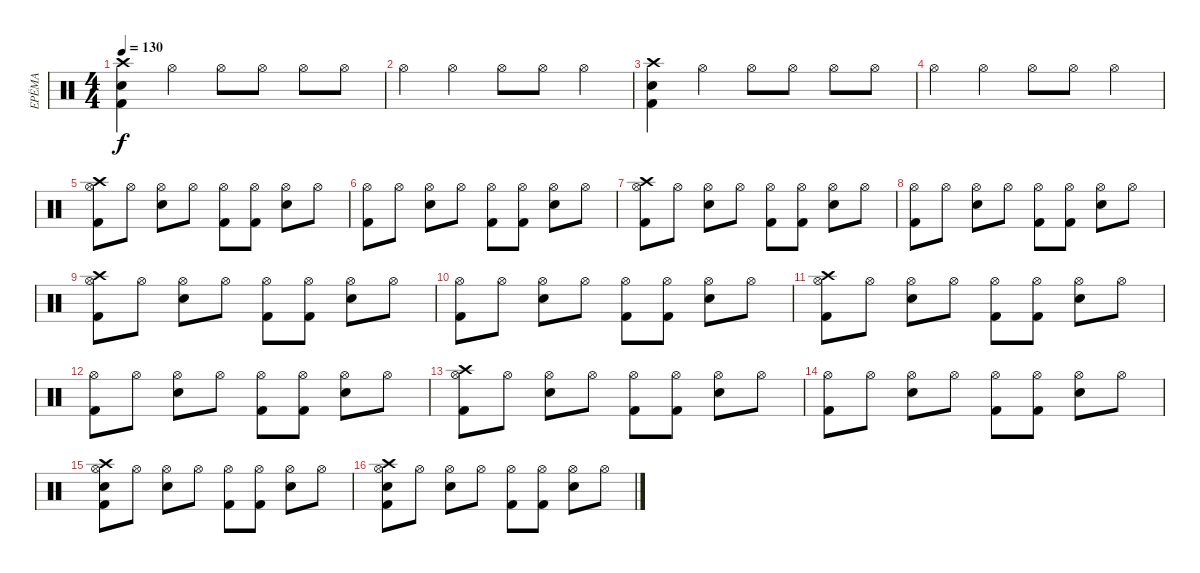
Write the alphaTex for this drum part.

\track ("ЕРЁМА" "ЕРЁМА") {instrument percussion}
\staff {score}
\articulation defaults
\ts (4 4)
\tempo 130
\clef neutral
\ks c
("Kick (hit) 2" "Electric Snare (hit)" "Crash high (hit)").4{dy f} "Hi-Hat (open)".4 "Hi-Hat (open)".8 "Hi-Hat (open)".8 "Hi-Hat (open)".8 "Hi-Hat (open)".8 |
"Hi-Hat (open)".4 "Hi-Hat (open)".4 "Hi-Hat (open)".8 "Hi-Hat (open)".8 "Hi-Hat (open)".4 |
("Kick (hit) 2" "Electric Snare (hit)" "Crash high (hit)").4 "Hi-Hat (open)".4 "Hi-Hat (open)".8 "Hi-Hat (open)".8 "Hi-Hat (open)".8 "Hi-Hat (open)".8 |
"Hi-Hat (open)".4 "Hi-Hat (open)".4 "Hi-Hat (open)".8 "Hi-Hat (open)".8 "Hi-Hat (open)".4 |
("Hi-Hat (open)" "Kick (hit) 2" "Crash high (hit)").8 "Hi-Hat (open)".8 ("Hi-Hat (open)" "Electric Snare (hit)").8 "Hi-Hat (open)".8 ("Hi-Hat (open)" "Kick (hit) 2").8 ("Hi-Hat (open)" "Kick (hit) 2").8 ("Hi-Hat (open)" "Electric Snare (hit)").8 "Hi-Hat (open)".8 |
("Hi-Hat (open)" "Kick (hit) 2").8 "Hi-Hat (open)".8 ("Hi-Hat (open)" "Electric Snare (hit)").8 "Hi-Hat (open)".8 ("Hi-Hat (open)" "Kick (hit) 2").8 ("Hi-Hat (open)" "Kick (hit) 2").8 ("Hi-Hat (open)" "Electric Snare (hit)").8 "Hi-Hat (open)".8 |
("Hi-Hat (open)" "Kick (hit) 2" "Crash high (hit)").8 "Hi-Hat (open)".8 ("Hi-Hat (open)" "Electric Snare (hit)").8 "Hi-Hat (open)".8 ("Hi-Hat (open)" "Kick (hit) 2").8 ("Hi-Hat (open)" "Kick (hit) 2").8 ("Hi-Hat (open)" "Electric Snare (hit)").8 "Hi-Hat (open)".8 |
("Hi-Hat (open)" "Kick (hit) 2").8 "Hi-Hat (open)".8 ("Hi-Hat (open)" "Electric Snare (hit)").8 "Hi-Hat (open)".8 ("Hi-Hat (open)" "Kick (hit) 2").8 ("Hi-Hat (open)" "Kick (hit) 2").8 ("Hi-Hat (open)" "Electric Snare (hit)").8 "Hi-Hat (open)".8 |
("Hi-Hat (open)" "Kick (hit) 2" "Crash high (hit)").8 "Hi-Hat (open)".8 ("Hi-Hat (open)" "Electric Snare (hit)").8 "Hi-Hat (open)".8 ("Hi-Hat (open)" "Kick (hit) 2").8 ("Hi-Hat (open)" "Kick (hit) 2").8 ("Hi-Hat (open)" "Electric Snare (hit)").8 "Hi-Hat (open)".8 |
("Hi-Hat (open)" "Kick (hit) 2").8 "Hi-Hat (open)".8 ("Hi-Hat (open)" "Electric Snare (hit)").8 "Hi-Hat (open)".8 ("Hi-Hat (open)" "Kick (hit) 2").8 ("Hi-Hat (open)" "Kick (hit) 2").8 ("Hi-Hat (open)" "Electric Snare (hit)").8 "Hi-Hat (open)".8 |
("Hi-Hat (open)" "Kick (hit) 2" "Crash high (hit)").8 "Hi-Hat (open)".8 ("Hi-Hat (open)" "Electric Snare (hit)").8 "Hi-Hat (open)".8 ("Hi-Hat (open)" "Kick (hit) 2").8 ("Hi-Hat (open)" "Kick (hit) 2").8 ("Hi-Hat (open)" "Electric Snare (hit)").8 "Hi-Hat (open)".8 |
("Hi-Hat (open)" "Kick (hit) 2").8 "Hi-Hat (open)".8 ("Hi-Hat (open)" "Electric Snare (hit)").8 "Hi-Hat (open)".8 ("Hi-Hat (open)" "Kick (hit) 2").8 ("Hi-Hat (open)" "Kick (hit) 2").8 ("Hi-Hat (open)" "Electric Snare (hit)").8 "Hi-Hat (open)".8 |
("Hi-Hat (open)" "Kick (hit) 2" "Crash high (hit)").8 "Hi-Hat (open)".8 ("Hi-Hat (open)" "Electric Snare (hit)").8 "Hi-Hat (open)".8 ("Hi-Hat (open)" "Kick (hit) 2").8 ("Hi-Hat (open)" "Kick (hit) 2").8 ("Hi-Hat (open)" "Electric Snare (hit)").8 "Hi-Hat (open)".8 |
("Hi-Hat (open)" "Kick (hit) 2").8 "Hi-Hat (open)".8 ("Hi-Hat (open)" "Electric Snare (hit)").8 "Hi-Hat (open)".8 ("Hi-Hat (open)" "Kick (hit) 2").8 ("Hi-Hat (open)" "Kick (hit) 2").8 ("Hi-Hat (open)" "Electric Snare (hit)").8 "Hi-Hat (open)".8 |
("Hi-Hat (open)" "Kick (hit) 2" "Crash high (hit)" "Electric Snare (hit)").8 "Hi-Hat (open)".8 ("Hi-Hat (open)" "Electric Snare (hit)").8 "Hi-Hat (open)".8 ("Hi-Hat (open)" "Kick (hit) 2").8 ("Hi-Hat (open)" "Kick (hit) 2").8 ("Hi-Hat (open)" "Electric Snare (hit)").8 "Hi-Hat (open)".8 |
("Hi-Hat (open)" "Kick (hit) 2" "Crash high (hit)" "Electric Snare (hit)").8 "Hi-Hat (open)".8 ("Hi-Hat (open)" "Electric Snare (hit)").8 "Hi-Hat (open)".8 ("Hi-Hat (open)" "Kick (hit) 2").8 ("Hi-Hat (open)" "Kick (hit) 2").8 ("Hi-Hat (open)" "Electric Snare (hit)").8 "Hi-Hat (open)".8
